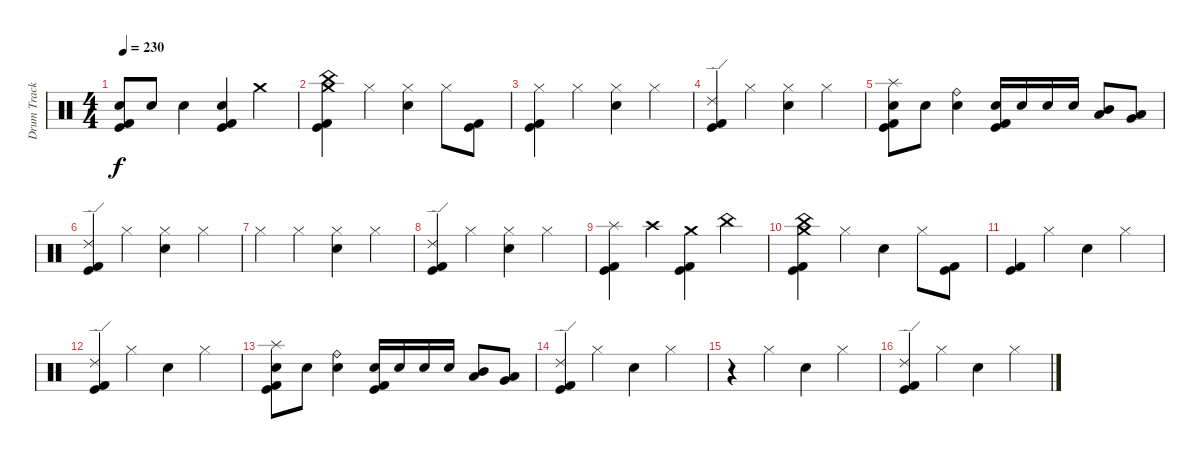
\track ("Drum Track" "Drum Track") {instrument percussion}
\staff {score}
\articulation defaults
\ts (4 4)
\tempo 230
\clef neutral
\ks c
("Electric Snare (hit)" "Kick (hit) 2" "Kick (hit)").8{dy f} "Electric Snare (hit)".8 "Electric Snare (hit)".4 ("Electric Snare (hit)" "Kick (hit) 2" "Kick (hit)").4 "Crash medium (hit)".4 |
("China (hit)" "Crash medium (hit)" "Kick (hit) 2" "Kick (hit)").4 "Hi-Hat (closed)".4 ("Hi-Hat (closed)" "Electric Snare (hit)").4 "Hi-Hat (closed)".8 ("Kick (hit) 2" "Kick (hit)").8 |
("Hi-Hat (closed)" "Kick (hit) 2" "Kick (hit)").4 "Hi-Hat (closed)".4 ("Hi-Hat (closed)" "Electric Snare (hit)").4 "Hi-Hat (closed)".4 |
("Ride (edge) 2" "Kick (hit) 2" "Kick (hit)").4 "Hi-Hat (closed)".4 ("Hi-Hat (closed)" "Electric Snare (hit)").4 "Hi-Hat (closed)".4 |
("Splash (hit)" "Electric Snare (hit)" "Kick (hit) 2" "Kick (hit)").8 "Electric Snare (hit)".8 ("Ride (bell)" "Electric Snare (hit)").4 ("Electric Snare (hit)" "Kick (hit) 2" "Kick (hit)").16 "Electric Snare (hit)".16 "Electric Snare (hit)".16 "Electric Snare (hit)".16 ("Mid Tom (hit)" "Low Tom (hit)").8 ("Low Tom (hit)" "Very Low Tom (hit)").8 |
("Ride (edge) 2" "Kick (hit) 2" "Kick (hit)").4 "Hi-Hat (closed)".4 ("Hi-Hat (closed)" "Electric Snare (hit)").4 "Hi-Hat (closed)".4 |
"Hi-Hat (closed)".4 "Hi-Hat (closed)".4 ("Hi-Hat (closed)" "Electric Snare (hit)").4 "Hi-Hat (closed)".4 |
("Ride (edge) 2" "Kick (hit) 2" "Kick (hit)").4 "Hi-Hat (closed)".4 ("Hi-Hat (closed)" "Electric Snare (hit)").4 "Hi-Hat (closed)".4 |
("Splash (hit)" "Kick (hit) 2" "Kick (hit)").4 "Crash high (hit)".4 ("Crash medium (hit)" "Kick (hit) 2" "Kick (hit)").4 "China (hit)".4 |
("China (hit)" "Crash medium (hit)" "Kick (hit) 2" "Kick (hit)").4 "Hi-Hat (closed)".4 "Electric Snare (hit)".4 "Hi-Hat (closed)".8 ("Kick (hit) 2" "Kick (hit)").8 |
("Kick (hit) 2" "Kick (hit)").4 "Hi-Hat (closed)".4 "Electric Snare (hit)".4 "Hi-Hat (closed)".4 |
("Ride (edge) 2" "Kick (hit) 2" "Kick (hit)").4 "Hi-Hat (closed)".4 "Electric Snare (hit)".4 "Hi-Hat (closed)".4 |
("Splash (hit)" "Electric Snare (hit)" "Kick (hit) 2" "Kick (hit)").8 "Electric Snare (hit)".8 ("Ride (bell)" "Electric Snare (hit)").4 ("Electric Snare (hit)" "Kick (hit) 2" "Kick (hit)").16 "Electric Snare (hit)".16 "Electric Snare (hit)".16 "Electric Snare (hit)".16 ("Mid Tom (hit)" "Low Tom (hit)").8 ("Low Tom (hit)" "Very Low Tom (hit)").8 |
("Ride (edge) 2" "Kick (hit) 2" "Kick (hit)").4 "Hi-Hat (closed)".4 "Electric Snare (hit)".4 "Hi-Hat (closed)".4 |
r.4 "Hi-Hat (closed)".4 "Electric Snare (hit)".4 "Hi-Hat (closed)".4 |
("Ride (edge) 2" "Kick (hit) 2" "Kick (hit)").4 "Hi-Hat (closed)".4 "Electric Snare (hit)".4 "Hi-Hat (closed)".4
